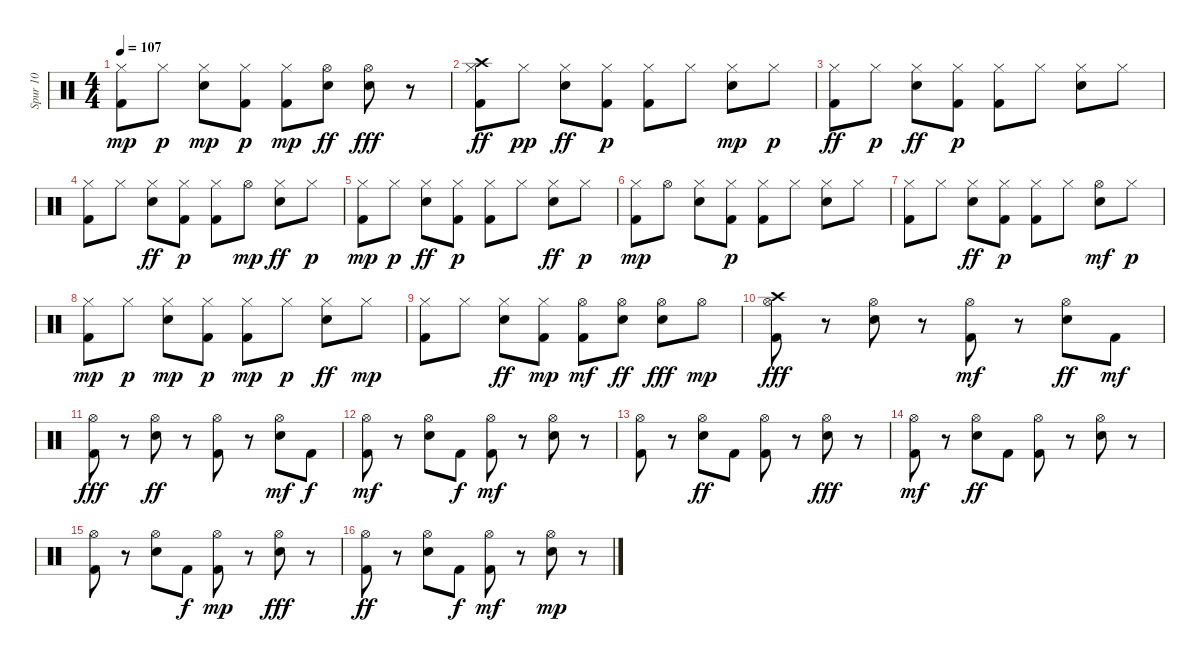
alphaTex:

\track ("Spur 10" "Spur 10") {instrument percussion}
\staff {score}
\articulation defaults
\ts (4 4)
\tempo 107
\clef neutral
\ks c
("Hi-Hat (closed)" "Kick (hit) 2").8{dy mp} "Hi-Hat (closed)".8{dy p} ("Electric Snare (hit)" "Hi-Hat (closed)").8{dy mp} ("Hi-Hat (closed)" "Kick (hit) 2").8{dy p} ("Hi-Hat (closed)" "Kick (hit) 2").8{dy mp} ("Hi-Hat (open)" "Electric Snare (hit)").8{dy ff} ("Hi-Hat (open)" "Electric Snare (hit)").8{dy fff} r.8 |
("Hi-Hat (closed)" "Kick (hit) 2" "Crash high (hit)").8{dy ff} "Hi-Hat (closed)".8{dy pp} ("Hi-Hat (closed)" "Electric Snare (hit)").8{dy ff} ("Kick (hit) 2" "Hi-Hat (closed)").8{dy p} ("Kick (hit) 2" "Hi-Hat (closed)").8 "Hi-Hat (closed)".8 ("Electric Snare (hit)" "Hi-Hat (closed)").8{dy mp} "Hi-Hat (closed)".8{dy p} |
("Hi-Hat (closed)" "Kick (hit) 2").8{dy ff} "Hi-Hat (closed)".8{dy p} ("Hi-Hat (closed)" "Electric Snare (hit)").8{dy ff} ("Hi-Hat (closed)" "Kick (hit) 2").8{dy p} ("Hi-Hat (closed)" "Kick (hit) 2").8 "Hi-Hat (closed)".8 ("Electric Snare (hit)" "Hi-Hat (closed)").8 "Hi-Hat (closed)".8 |
("Kick (hit) 2" "Hi-Hat (closed)").8 "Hi-Hat (closed)".8 ("Hi-Hat (closed)" "Electric Snare (hit)").8{dy ff} ("Hi-Hat (closed)" "Kick (hit) 2").8{dy p} ("Hi-Hat (closed)" "Kick (hit) 2").8 "Hi-Hat (open)".8{dy mp} ("Hi-Hat (closed)" "Electric Snare (hit)").8{dy ff} "Hi-Hat (closed)".8{dy p} |
("Kick (hit) 2" "Hi-Hat (closed)").8{dy mp} "Hi-Hat (closed)".8{dy p} ("Hi-Hat (closed)" "Electric Snare (hit)").8{dy ff} ("Hi-Hat (closed)" "Kick (hit) 2").8{dy p} ("Hi-Hat (closed)" "Kick (hit) 2").8 "Hi-Hat (closed)".8 ("Hi-Hat (closed)" "Electric Snare (hit)").8{dy ff} "Hi-Hat (closed)".8{dy p} |
("Kick (hit) 2" "Hi-Hat (closed)").8{dy mp} "Hi-Hat (open)".8 ("Electric Snare (hit)" "Hi-Hat (closed)").8 ("Kick (hit) 2" "Hi-Hat (closed)").8{dy p} ("Kick (hit) 2" "Hi-Hat (closed)").8 "Hi-Hat (closed)".8 ("Electric Snare (hit)" "Hi-Hat (closed)").8 "Hi-Hat (closed)".8 |
("Kick (hit) 2" "Hi-Hat (closed)").8 "Hi-Hat (closed)".8 ("Hi-Hat (closed)" "Electric Snare (hit)").8{dy ff} ("Hi-Hat (closed)" "Kick (hit) 2").8{dy p} ("Hi-Hat (closed)" "Kick (hit) 2").8 "Hi-Hat (closed)".8 ("Hi-Hat (open)" "Electric Snare (hit)").8{dy mf} "Hi-Hat (closed)".8{dy p} |
("Hi-Hat (closed)" "Kick (hit) 2").8{dy mp} "Hi-Hat (closed)".8{dy p} ("Electric Snare (hit)" "Hi-Hat (closed)").8{dy mp} ("Hi-Hat (closed)" "Kick (hit) 2").8{dy p} ("Hi-Hat (closed)" "Kick (hit) 2").8{dy mp} "Hi-Hat (closed)".8{dy p} ("Hi-Hat (closed)" "Electric Snare (hit)").8{dy ff} "Hi-Hat (closed)".8{dy mp} |
("Hi-Hat (closed)" "Kick (hit) 2").8 "Hi-Hat (closed)".8 ("Hi-Hat (closed)" "Electric Snare (hit)").8{dy ff} ("Hi-Hat (closed)" "Kick (hit) 2").8{dy mp} ("Hi-Hat (open)" "Kick (hit) 2").8{dy mf} ("Hi-Hat (open)" "Electric Snare (hit)").8{dy ff} ("Hi-Hat (open)" "Electric Snare (hit)").8{dy fff} "Hi-Hat (open)".8{dy mp} |
("Hi-Hat (open)" "Crash high (hit)" "Kick (hit) 2").8{dy fff} r.8 ("Hi-Hat (open)" "Electric Snare (hit)").8 r.8 ("Hi-Hat (open)" "Kick (hit) 2").8{dy mf} r.8 ("Hi-Hat (open)" "Electric Snare (hit)").8{dy ff} "Kick (hit) 2".8{dy mf} |
("Hi-Hat (open)" "Kick (hit) 2").8{dy fff} r.8 ("Electric Snare (hit)" "Hi-Hat (open)").8{dy ff} r.8 ("Kick (hit) 2" "Hi-Hat (open)").8 r.8 ("Electric Snare (hit)" "Hi-Hat (open)").8{dy mf} "Kick (hit) 2".8{dy f} |
("Kick (hit) 2" "Hi-Hat (open)").8{dy mf} r.8 ("Electric Snare (hit)" "Hi-Hat (open)").8 "Kick (hit) 2".8{dy f} ("Kick (hit) 2" "Hi-Hat (open)").8{dy mf} r.8 ("Electric Snare (hit)" "Hi-Hat (open)").8 r.8 |
("Kick (hit) 2" "Hi-Hat (open)").8 r.8 ("Hi-Hat (open)" "Electric Snare (hit)").8{dy ff} "Kick (hit) 2".8 ("Hi-Hat (open)" "Kick (hit) 2").8 r.8 ("Hi-Hat (open)" "Electric Snare (hit)").8{dy fff} r.8 |
("Kick (hit) 2" "Hi-Hat (open)").8{dy mf} r.8 ("Hi-Hat (open)" "Electric Snare (hit)").8{dy ff} "Kick (hit) 2".8 ("Hi-Hat (open)" "Kick (hit) 2").8 r.8 ("Hi-Hat (open)" "Electric Snare (hit)").8 r.8 |
("Hi-Hat (open)" "Kick (hit) 2").8 r.8 ("Hi-Hat (open)" "Electric Snare (hit)").8 "Kick (hit) 2".8{dy f} ("Hi-Hat (open)" "Kick (hit) 2").8{dy mp} r.8 ("Hi-Hat (open)" "Electric Snare (hit)").8{dy fff} r.8 |
("Hi-Hat (open)" "Kick (hit) 2").8{dy ff} r.8 ("Hi-Hat (open)" "Electric Snare (hit)").8 "Kick (hit) 2".8{dy f} ("Kick (hit) 2" "Hi-Hat (open)").8{dy mf} r.8 ("Electric Snare (hit)" "Hi-Hat (open)").8{dy mp} r.8
